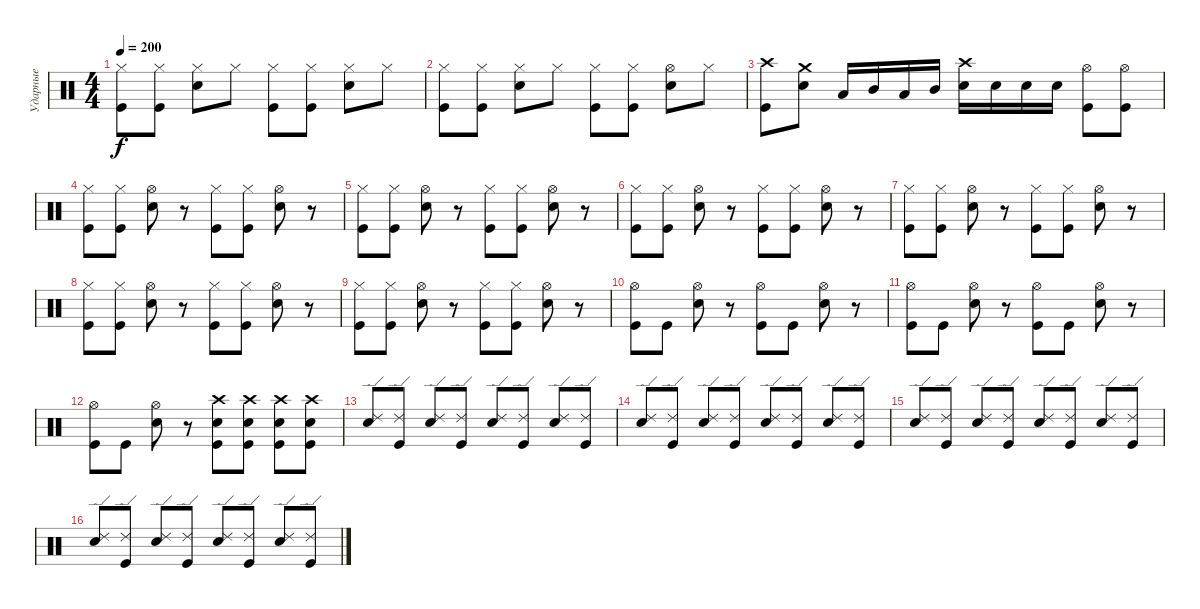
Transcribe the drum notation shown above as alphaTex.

\track ("Ударные" "Ударные") {instrument percussion}
\staff {score}
\articulation defaults
\ts (4 4)
\tempo 200
\clef neutral
\ks c
("Kick (hit)" "Hi-Hat (closed)").8{dy f} ("Kick (hit)" "Hi-Hat (closed)").8 ("Electric Snare (hit)" "Hi-Hat (closed)").8 "Hi-Hat (closed)".8 ("Kick (hit)" "Hi-Hat (closed)").8 ("Kick (hit)" "Hi-Hat (closed)").8 ("Electric Snare (hit)" "Hi-Hat (closed)").8 "Hi-Hat (closed)".8 |
("Kick (hit)" "Hi-Hat (closed)").8 ("Kick (hit)" "Hi-Hat (closed)").8 ("Electric Snare (hit)" "Hi-Hat (closed)").8 "Hi-Hat (closed)".8 ("Kick (hit)" "Hi-Hat (closed)").8 ("Kick (hit)" "Hi-Hat (closed)").8 ("Electric Snare (hit)" "Hi-Hat (open)").8 "Hi-Hat (closed)".8 |
("Kick (hit)" "Crash high (hit)").8 ("Electric Snare (hit)" "Crash medium (hit)").8 "Low Tom (hit)".16 "Mid Tom (hit)".16 "Low Tom (hit)".16 "Mid Tom (hit)".16 ("Electric Snare (hit)" "Crash high (hit)").16 "Electric Snare (hit)".16 "Electric Snare (hit)".16 "Electric Snare (hit)".16 ("Kick (hit)" "Hi-Hat (open)").8 ("Kick (hit)" "Hi-Hat (open)").8 |
("Kick (hit)" "Hi-Hat (closed)").8 ("Kick (hit)" "Hi-Hat (closed)").8 ("Electric Snare (hit)" "Hi-Hat (open)").8 r.8 ("Kick (hit)" "Hi-Hat (closed)").8 ("Kick (hit)" "Hi-Hat (closed)").8 ("Electric Snare (hit)" "Hi-Hat (open)").8 r.8 |
("Kick (hit)" "Hi-Hat (closed)").8 ("Kick (hit)" "Hi-Hat (closed)").8 ("Electric Snare (hit)" "Hi-Hat (open)").8 r.8 ("Kick (hit)" "Hi-Hat (closed)").8 ("Kick (hit)" "Hi-Hat (closed)").8 ("Electric Snare (hit)" "Hi-Hat (open)").8 r.8 |
("Kick (hit)" "Hi-Hat (closed)").8 ("Kick (hit)" "Hi-Hat (closed)").8 ("Electric Snare (hit)" "Hi-Hat (open)").8 r.8 ("Kick (hit)" "Hi-Hat (closed)").8 ("Kick (hit)" "Hi-Hat (closed)").8 ("Electric Snare (hit)" "Hi-Hat (open)").8 r.8 |
("Kick (hit)" "Hi-Hat (closed)").8 ("Kick (hit)" "Hi-Hat (closed)").8 ("Electric Snare (hit)" "Hi-Hat (open)").8 r.8 ("Kick (hit)" "Hi-Hat (closed)").8 ("Kick (hit)" "Hi-Hat (closed)").8 ("Electric Snare (hit)" "Hi-Hat (open)").8 r.8 |
("Kick (hit)" "Hi-Hat (closed)").8 ("Kick (hit)" "Hi-Hat (closed)").8 ("Electric Snare (hit)" "Hi-Hat (open)").8 r.8 ("Kick (hit)" "Hi-Hat (closed)").8 ("Kick (hit)" "Hi-Hat (closed)").8 ("Electric Snare (hit)" "Hi-Hat (open)").8 r.8 |
("Kick (hit)" "Hi-Hat (closed)").8 ("Kick (hit)" "Hi-Hat (closed)").8 ("Electric Snare (hit)" "Hi-Hat (open)").8 r.8 ("Kick (hit)" "Hi-Hat (closed)").8 ("Kick (hit)" "Hi-Hat (closed)").8 ("Electric Snare (hit)" "Hi-Hat (open)").8 r.8 |
("Kick (hit)" "Hi-Hat (open)").8 "Kick (hit)".8 ("Electric Snare (hit)" "Hi-Hat (open)").8 r.8 ("Kick (hit)" "Hi-Hat (open)").8 "Kick (hit)".8 ("Electric Snare (hit)" "Hi-Hat (open)").8 r.8 |
("Kick (hit)" "Hi-Hat (open)").8 "Kick (hit)".8 ("Electric Snare (hit)" "Hi-Hat (open)").8 r.8 ("Kick (hit)" "Hi-Hat (open)").8 "Kick (hit)".8 ("Electric Snare (hit)" "Hi-Hat (open)").8 r.8 |
("Kick (hit)" "Hi-Hat (open)").8 "Kick (hit)".8 ("Electric Snare (hit)" "Hi-Hat (open)").8 r.8 ("Crash high (hit)" "Kick (hit)" "Electric Snare (hit)").8 ("Crash high (hit)" "Kick (hit)" "Electric Snare (hit)").8 ("Crash high (hit)" "Kick (hit)" "Electric Snare (hit)").8 ("Crash high (hit)" "Kick (hit)" "Electric Snare (hit)").8 |
("Ride (edge) 2" "Electric Snare (hit)").8 ("Ride (edge) 2" "Kick (hit)").8 ("Ride (edge) 2" "Electric Snare (hit)").8 ("Ride (edge) 2" "Kick (hit)").8 ("Ride (edge) 2" "Electric Snare (hit)").8 ("Ride (edge) 2" "Kick (hit)").8 ("Ride (edge) 2" "Electric Snare (hit)").8 ("Ride (edge) 2" "Kick (hit)").8 |
("Ride (edge) 2" "Electric Snare (hit)").8 ("Ride (edge) 2" "Kick (hit)").8 ("Ride (edge) 2" "Electric Snare (hit)").8 ("Ride (edge) 2" "Kick (hit)").8 ("Ride (edge) 2" "Electric Snare (hit)").8 ("Ride (edge) 2" "Kick (hit)").8 ("Ride (edge) 2" "Electric Snare (hit)").8 ("Ride (edge) 2" "Kick (hit)").8 |
("Ride (edge) 2" "Electric Snare (hit)").8 ("Ride (edge) 2" "Kick (hit)").8 ("Ride (edge) 2" "Electric Snare (hit)").8 ("Ride (edge) 2" "Kick (hit)").8 ("Ride (edge) 2" "Electric Snare (hit)").8 ("Ride (edge) 2" "Kick (hit)").8 ("Ride (edge) 2" "Electric Snare (hit)").8 ("Ride (edge) 2" "Kick (hit)").8 |
("Ride (edge) 2" "Electric Snare (hit)").8 ("Ride (edge) 2" "Kick (hit)").8 ("Ride (edge) 2" "Electric Snare (hit)").8 ("Ride (edge) 2" "Kick (hit)").8 ("Ride (edge) 2" "Electric Snare (hit)").8 ("Ride (edge) 2" "Kick (hit)").8 ("Ride (edge) 2" "Electric Snare (hit)").8 ("Ride (edge) 2" "Kick (hit)").8
